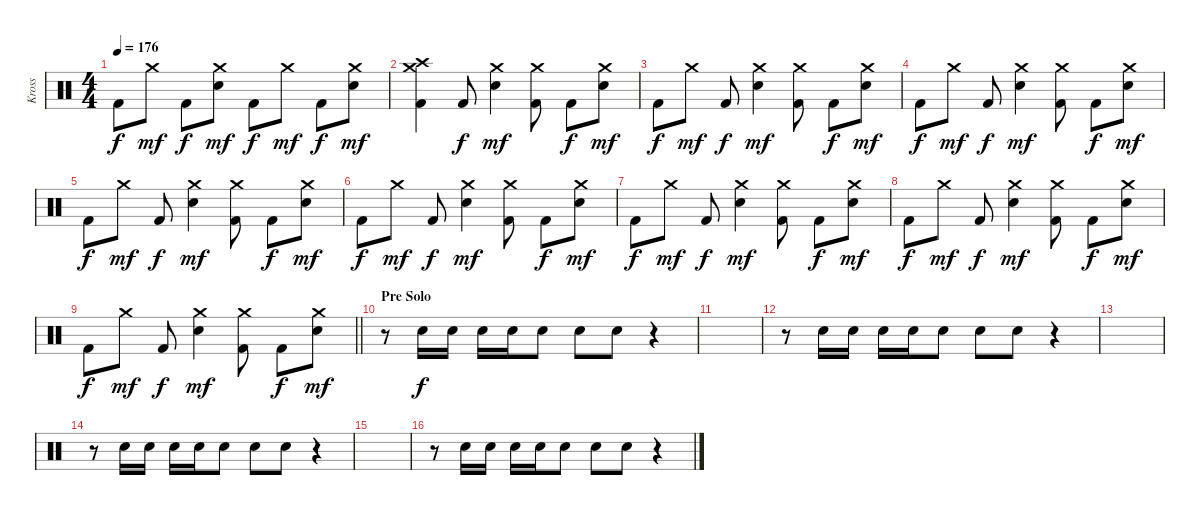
\track ("Kross" "Kross") {instrument percussion}
\staff {score}
\articulation defaults
\ts (4 4)
\tempo 176
\clef neutral
\ks c "Kick (hit) 2".8{dy f} "Crash medium (hit)".8{dy mf} "Kick (hit) 2".8{dy f}
("Crash medium (hit)" "Electric Snare (hit)").8{dy mf} "Kick (hit) 2".8{dy f} "Crash medium (hit)".8{dy mf} "Kick (hit) 2".8{dy f} ("Crash medium (hit)" "Electric Snare (hit)").8{dy mf} |
("Crash medium (hit)" "Crash high (hit)" "Kick (hit) 2").4 "Kick (hit) 2".8{dy f} ("Crash medium (hit)" "Electric Snare (hit)").4{dy mf} ("Crash medium (hit)" "Kick (hit) 2").8 "Kick (hit) 2".8{dy f} ("Crash medium (hit)" "Electric Snare (hit)").8{dy mf} |
"Kick (hit) 2".8{dy f} "Crash medium (hit)".8{dy mf} "Kick (hit) 2".8{dy f} ("Crash medium (hit)" "Electric Snare (hit)").4{dy mf} ("Crash medium (hit)" "Kick (hit) 2").8 "Kick (hit) 2".8{dy f} ("Crash medium (hit)" "Electric Snare (hit)").8{dy mf} |
"Kick (hit) 2".8{dy f} "Crash medium (hit)".8{dy mf} "Kick (hit) 2".8{dy f} ("Crash medium (hit)" "Electric Snare (hit)").4{dy mf} ("Crash medium (hit)" "Kick (hit) 2").8 "Kick (hit) 2".8{dy f} ("Crash medium (hit)" "Electric Snare (hit)").8{dy mf} |
"Kick (hit) 2".8{dy f} "Crash medium (hit)".8{dy mf} "Kick (hit) 2".8{dy f} ("Crash medium (hit)" "Electric Snare (hit)").4{dy mf} ("Crash medium (hit)" "Kick (hit) 2").8 "Kick (hit) 2".8{dy f} ("Crash medium (hit)" "Electric Snare (hit)").8{dy mf} |
"Kick (hit) 2".8{dy f} "Crash medium (hit)".8{dy mf} "Kick (hit) 2".8{dy f} ("Crash medium (hit)" "Electric Snare (hit)").4{dy mf} ("Crash medium (hit)" "Kick (hit) 2").8 "Kick (hit) 2".8{dy f} ("Crash medium (hit)" "Electric Snare (hit)").8{dy mf} |
"Kick (hit) 2".8{dy f} "Crash medium (hit)".8{dy mf} "Kick (hit) 2".8{dy f} ("Crash medium (hit)" "Electric Snare (hit)").4{dy mf} ("Crash medium (hit)" "Kick (hit) 2").8 "Kick (hit) 2".8{dy f} ("Crash medium (hit)" "Electric Snare (hit)").8{dy mf} |
"Kick (hit) 2".8{dy f} "Crash medium (hit)".8{dy mf} "Kick (hit) 2".8{dy f} ("Crash medium (hit)" "Electric Snare (hit)").4{dy mf} ("Crash medium (hit)" "Kick (hit) 2").8 "Kick (hit) 2".8{dy f} ("Crash medium (hit)" "Electric Snare (hit)").8{dy mf} |
\barLineRight lightlight "Kick (hit) 2".8{dy f} "Crash medium (hit)".8{dy mf} "Kick (hit) 2".8{dy f}
("Crash medium (hit)" "Electric Snare (hit)").4{dy mf} ("Crash medium (hit)" "Kick (hit) 2").8 "Kick (hit) 2".8{dy f} ("Crash medium (hit)" "Electric Snare (hit)").8{dy mf} |
\section ("" "Pre Solo")
r.8 "Electric Snare (hit)".16{dy f} "Electric Snare (hit)".16 "Electric Snare (hit)".16 "Electric Snare (hit)".16 "Electric Snare (hit)".8 "Electric Snare (hit)".8 "Electric Snare (hit)".8 r.4 |
|
r.8 "Electric Snare (hit)".16 "Electric Snare (hit)".16 "Electric Snare (hit)".16 "Electric Snare (hit)".16 "Electric Snare (hit)".8 "Electric Snare (hit)".8 "Electric Snare (hit)".8 r.4 |
|
r.8 "Electric Snare (hit)".16 "Electric Snare (hit)".16 "Electric Snare (hit)".16 "Electric Snare (hit)".16 "Electric Snare (hit)".8 "Electric Snare (hit)".8 "Electric Snare (hit)".8 r.4 |
|
r.8 "Electric Snare (hit)".16 "Electric Snare (hit)".16 "Electric Snare (hit)".16 "Electric Snare (hit)".16 "Electric Snare (hit)".8 "Electric Snare (hit)".8 "Electric Snare (hit)".8 r.4
